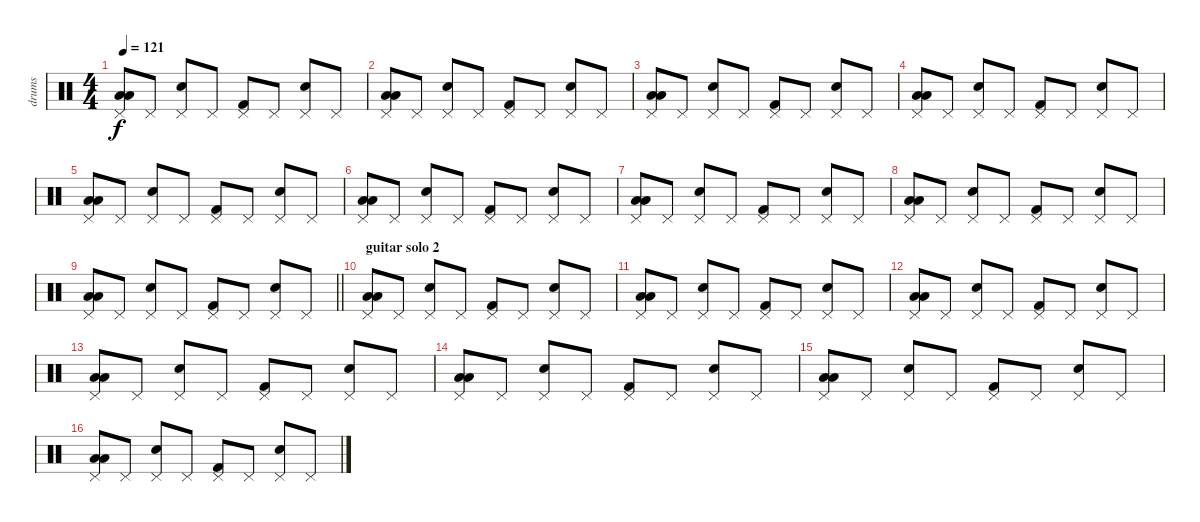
\track ("drums" "drums") {instrument percussion}
\staff {score}
\articulation defaults
\ts (4 4)
\tempo 121
\clef neutral
\ks c
("Low Floor Tom (hit)" "Low Floor Tom (hit)" "Pedal Hi-Hat (hit)").8{dy f} "Pedal Hi-Hat (hit)".8 ("Hand Clap (hit)" "Pedal Hi-Hat (hit)").8 "Pedal Hi-Hat (hit)".8 ("Kick (hit) 2" "Pedal Hi-Hat (hit)").8 "Pedal Hi-Hat (hit)".8 ("Snare (hit) 2" "Pedal Hi-Hat (hit)").8 "Pedal Hi-Hat (hit)".8 |
("Low Floor Tom (hit)" "Low Floor Tom (hit)" "Pedal Hi-Hat (hit)").8 "Pedal Hi-Hat (hit)".8 ("Hand Clap (hit)" "Pedal Hi-Hat (hit)").8 "Pedal Hi-Hat (hit)".8 ("Kick (hit) 2" "Pedal Hi-Hat (hit)").8 "Pedal Hi-Hat (hit)".8 ("Snare (hit) 2" "Pedal Hi-Hat (hit)").8 "Pedal Hi-Hat (hit)".8 |
("Low Floor Tom (hit)" "Low Floor Tom (hit)" "Pedal Hi-Hat (hit)").8 "Pedal Hi-Hat (hit)".8 ("Hand Clap (hit)" "Pedal Hi-Hat (hit)").8 "Pedal Hi-Hat (hit)".8 ("Kick (hit) 2" "Pedal Hi-Hat (hit)").8 "Pedal Hi-Hat (hit)".8 ("Snare (hit) 2" "Pedal Hi-Hat (hit)").8 "Pedal Hi-Hat (hit)".8 |
("Low Floor Tom (hit)" "Low Floor Tom (hit)" "Pedal Hi-Hat (hit)").8 "Pedal Hi-Hat (hit)".8 ("Hand Clap (hit)" "Pedal Hi-Hat (hit)").8 "Pedal Hi-Hat (hit)".8 ("Kick (hit) 2" "Pedal Hi-Hat (hit)").8 "Pedal Hi-Hat (hit)".8 ("Snare (hit) 2" "Pedal Hi-Hat (hit)").8 "Pedal Hi-Hat (hit)".8 |
("Low Floor Tom (hit)" "Low Floor Tom (hit)" "Pedal Hi-Hat (hit)").8 "Pedal Hi-Hat (hit)".8 ("Hand Clap (hit)" "Pedal Hi-Hat (hit)").8 "Pedal Hi-Hat (hit)".8 ("Kick (hit) 2" "Pedal Hi-Hat (hit)").8 "Pedal Hi-Hat (hit)".8 ("Snare (hit) 2" "Pedal Hi-Hat (hit)").8 "Pedal Hi-Hat (hit)".8 |
("Low Floor Tom (hit)" "Low Floor Tom (hit)" "Pedal Hi-Hat (hit)").8 "Pedal Hi-Hat (hit)".8 ("Hand Clap (hit)" "Pedal Hi-Hat (hit)").8 "Pedal Hi-Hat (hit)".8 ("Kick (hit) 2" "Pedal Hi-Hat (hit)").8 "Pedal Hi-Hat (hit)".8 ("Snare (hit) 2" "Pedal Hi-Hat (hit)").8 "Pedal Hi-Hat (hit)".8 |
("Low Floor Tom (hit)" "Low Floor Tom (hit)" "Pedal Hi-Hat (hit)").8 "Pedal Hi-Hat (hit)".8 ("Hand Clap (hit)" "Pedal Hi-Hat (hit)").8 "Pedal Hi-Hat (hit)".8 ("Kick (hit) 2" "Pedal Hi-Hat (hit)").8 "Pedal Hi-Hat (hit)".8 ("Snare (hit) 2" "Pedal Hi-Hat (hit)").8 "Pedal Hi-Hat (hit)".8 |
("Low Floor Tom (hit)" "Low Floor Tom (hit)" "Pedal Hi-Hat (hit)").8 "Pedal Hi-Hat (hit)".8 ("Hand Clap (hit)" "Pedal Hi-Hat (hit)").8 "Pedal Hi-Hat (hit)".8 ("Kick (hit) 2" "Pedal Hi-Hat (hit)").8 "Pedal Hi-Hat (hit)".8 ("Snare (hit) 2" "Pedal Hi-Hat (hit)").8 "Pedal Hi-Hat (hit)".8 |
\barLineRight lightlight
("Low Floor Tom (hit)" "Low Floor Tom (hit)" "Pedal Hi-Hat (hit)").8 "Pedal Hi-Hat (hit)".8 ("Hand Clap (hit)" "Pedal Hi-Hat (hit)").8 "Pedal Hi-Hat (hit)".8 ("Kick (hit) 2" "Pedal Hi-Hat (hit)").8 "Pedal Hi-Hat (hit)".8 ("Snare (hit) 2" "Pedal Hi-Hat (hit)").8 "Pedal Hi-Hat (hit)".8 |
\section ("" " guitar solo 2")
("Low Floor Tom (hit)" "Low Floor Tom (hit)" "Pedal Hi-Hat (hit)").8 "Pedal Hi-Hat (hit)".8 ("Hand Clap (hit)" "Pedal Hi-Hat (hit)").8 "Pedal Hi-Hat (hit)".8 ("Kick (hit) 2" "Pedal Hi-Hat (hit)").8 "Pedal Hi-Hat (hit)".8 ("Snare (hit) 2" "Pedal Hi-Hat (hit)").8 "Pedal Hi-Hat (hit)".8 |
("Low Floor Tom (hit)" "Low Floor Tom (hit)" "Pedal Hi-Hat (hit)").8 "Pedal Hi-Hat (hit)".8 ("Hand Clap (hit)" "Pedal Hi-Hat (hit)").8 "Pedal Hi-Hat (hit)".8 ("Kick (hit) 2" "Pedal Hi-Hat (hit)").8 "Pedal Hi-Hat (hit)".8 ("Snare (hit) 2" "Pedal Hi-Hat (hit)").8 "Pedal Hi-Hat (hit)".8 |
("Low Floor Tom (hit)" "Low Floor Tom (hit)" "Pedal Hi-Hat (hit)").8 "Pedal Hi-Hat (hit)".8 ("Hand Clap (hit)" "Pedal Hi-Hat (hit)").8 "Pedal Hi-Hat (hit)".8 ("Kick (hit) 2" "Pedal Hi-Hat (hit)").8 "Pedal Hi-Hat (hit)".8 ("Snare (hit) 2" "Pedal Hi-Hat (hit)").8 "Pedal Hi-Hat (hit)".8 |
("Low Floor Tom (hit)" "Low Floor Tom (hit)" "Pedal Hi-Hat (hit)").8 "Pedal Hi-Hat (hit)".8 ("Hand Clap (hit)" "Pedal Hi-Hat (hit)").8 "Pedal Hi-Hat (hit)".8 ("Kick (hit) 2" "Pedal Hi-Hat (hit)").8 "Pedal Hi-Hat (hit)".8 ("Snare (hit) 2" "Pedal Hi-Hat (hit)").8 "Pedal Hi-Hat (hit)".8 |
("Low Floor Tom (hit)" "Low Floor Tom (hit)" "Pedal Hi-Hat (hit)").8 "Pedal Hi-Hat (hit)".8 ("Hand Clap (hit)" "Pedal Hi-Hat (hit)").8 "Pedal Hi-Hat (hit)".8 ("Kick (hit) 2" "Pedal Hi-Hat (hit)").8 "Pedal Hi-Hat (hit)".8 ("Snare (hit) 2" "Pedal Hi-Hat (hit)").8 "Pedal Hi-Hat (hit)".8 |
("Low Floor Tom (hit)" "Low Floor Tom (hit)" "Pedal Hi-Hat (hit)").8 "Pedal Hi-Hat (hit)".8 ("Hand Clap (hit)" "Pedal Hi-Hat (hit)").8 "Pedal Hi-Hat (hit)".8 ("Kick (hit) 2" "Pedal Hi-Hat (hit)").8 "Pedal Hi-Hat (hit)".8 ("Snare (hit) 2" "Pedal Hi-Hat (hit)").8 "Pedal Hi-Hat (hit)".8 |
("Low Floor Tom (hit)" "Low Floor Tom (hit)" "Pedal Hi-Hat (hit)").8 "Pedal Hi-Hat (hit)".8 ("Hand Clap (hit)" "Pedal Hi-Hat (hit)").8 "Pedal Hi-Hat (hit)".8 ("Kick (hit) 2" "Pedal Hi-Hat (hit)").8 "Pedal Hi-Hat (hit)".8 ("Snare (hit) 2" "Pedal Hi-Hat (hit)").8 "Pedal Hi-Hat (hit)".8
